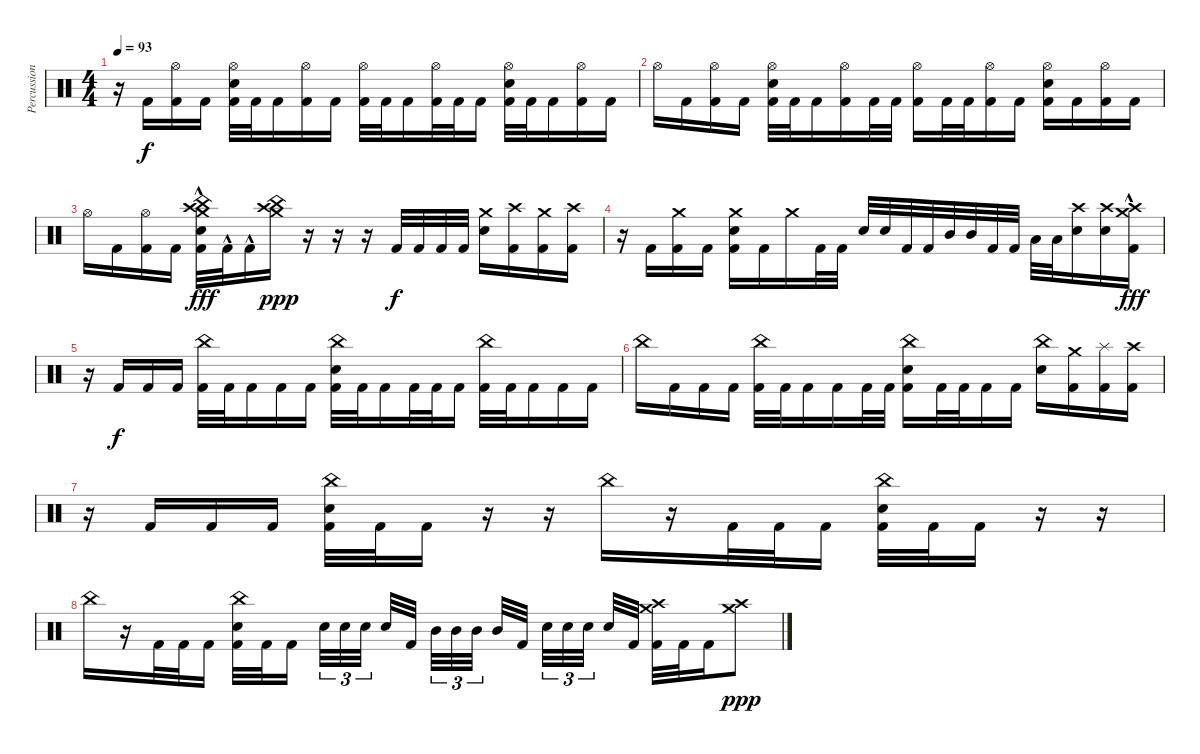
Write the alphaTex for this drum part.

\track ("Percussion" "Percussion") {instrument percussion}
\staff {score}
\articulation defaults
\ts (4 4)
\tempo 93
\clef neutral
\ks c
r.16{dy f} "Kick (hit) 2".16 ("Hi-Hat (open)" "Kick (hit) 2").16 "Kick (hit) 2".16 ("Hi-Hat (open)" "Electric Snare (hit)" "Kick (hit) 2").32 "Kick (hit) 2".32 "Kick (hit) 2".16 ("Hi-Hat (open)" "Kick (hit) 2").16 "Kick (hit) 2".16 ("Hi-Hat (open)" "Kick (hit) 2").32 "Kick (hit) 2".32 "Kick (hit) 2".16 ("Hi-Hat (open)" "Kick (hit) 2").32 "Kick (hit) 2".32 "Kick (hit) 2".16 ("Hi-Hat (open)" "Electric Snare (hit)" "Kick (hit) 2").32 "Kick (hit) 2".32 "Kick (hit) 2".16 ("Hi-Hat (open)" "Kick (hit) 2").16 "Kick (hit) 2".16 |
"Hi-Hat (open)".16 "Kick (hit) 2".16 ("Hi-Hat (open)" "Kick (hit) 2").16 "Kick (hit) 2".16 ("Hi-Hat (open)" "Electric Snare (hit)" "Kick (hit) 2").32 "Kick (hit) 2".32 "Kick (hit) 2".16 ("Hi-Hat (open)" "Kick (hit) 2").16 "Kick (hit) 2".32 "Kick (hit) 2".32 ("Hi-Hat (open)" "Kick (hit) 2").16 "Kick (hit) 2".32 "Kick (hit) 2".32 ("Hi-Hat (open)" "Kick (hit) 2").16 "Kick (hit) 2".16 ("Hi-Hat (open)" "Electric Snare (hit)" "Kick (hit) 2").16 "Kick (hit) 2".16 ("Hi-Hat (open)" "Kick (hit) 2").16 "Kick (hit) 2".16 |
"Hi-Hat (open)".16 "Kick (hit) 2".16 ("Hi-Hat (open)" "Kick (hit) 2").16 "Kick (hit) 2".16 ("China (hit)"{hac} "Crash medium (hit)"{hac} "Crash high (hit)"{hac} "Electric Snare (hit)"{hac} "Kick (hit) 2"{hac}).32{dy fff} "Kick (hit) 2"{hac}.32 "Kick (hit) 2"{hac}.16 ("China (hit)" "Crash medium (hit)" "Crash high (hit)").16{dy ppp} r.16 r.16 r.16 "Kick (hit) 2".32{dy f} "Kick (hit) 2".32 "Kick (hit) 2".32 "Kick (hit) 2".32 ("Crash medium (hit)" "Electric Snare (hit)").16 ("Crash high (hit)" "Kick (hit) 2").16 ("Crash medium (hit)" "Kick (hit) 2").16 ("Crash high (hit)" "Kick (hit) 2").16 |
r.16 "Kick (hit) 2".16 ("Crash medium (hit)" "Kick (hit) 2").16 "Kick (hit) 2".16 ("Crash medium (hit)" "Electric Snare (hit)" "Kick (hit) 2").16 "Kick (hit) 2".16 "Crash medium (hit)".16 "Kick (hit) 2".32 "Kick (hit) 2".32 "Electric Snare (hit)".32 "Electric Snare (hit)".32 "Kick (hit) 2".32 "Kick (hit) 2".32 "Mid Tom (hit)".32 "Mid Tom (hit)".32 "Kick (hit) 2".32 "Kick (hit) 2".32 "Low Tom (hit)".32 "Low Tom (hit)".32 ("Crash high (hit)" "Electric Snare (hit)").16 ("Crash high (hit)" "Electric Snare (hit)").16 ("Crash medium (hit)"{hac} "Crash high (hit)"{hac} "Kick (hit) 2"{hac}).16{dy fff} |
r.16 "Kick (hit) 2".16{dy f} "Kick (hit) 2".16 "Kick (hit) 2".16 ("China (hit)" "Kick (hit) 2").32 "Kick (hit) 2".32 "Kick (hit) 2".16 "Kick (hit) 2".16 "Kick (hit) 2".16 ("China (hit)" "Electric Snare (hit)" "Kick (hit) 2").32 "Kick (hit) 2".32 "Kick (hit) 2".16 "Kick (hit) 2".32 "Kick (hit) 2".32 "Kick (hit) 2".16 ("China (hit)" "Kick (hit) 2").32 "Kick (hit) 2".32 "Kick (hit) 2".16 "Kick (hit) 2".16 "Kick (hit) 2".16 |
"China (hit)".16 "Kick (hit) 2".16 "Kick (hit) 2".16 "Kick (hit) 2".16 ("China (hit)" "Kick (hit) 2").32 "Kick (hit) 2".32 "Kick (hit) 2".16 "Kick (hit) 2".16 "Kick (hit) 2".32 "Kick (hit) 2".32 ("China (hit)" "Electric Snare (hit)" "Kick (hit) 2").16 "Kick (hit) 2".32 "Kick (hit) 2".32 "Kick (hit) 2".16 "Kick (hit) 2".16 ("China (hit)" "Electric Snare (hit)").16 ("Crash medium (hit)" "Kick (hit) 2").16 ("Splash (hit)" "Kick (hit) 2").16 ("Crash high (hit)" "Kick (hit) 2").16 |
r.16 "Kick (hit) 2".16 "Kick (hit) 2".16 "Kick (hit) 2".16 ("China (hit)" "Electric Snare (hit)" "Kick (hit) 2").32 "Kick (hit) 2".32 "Kick (hit) 2".16 r.16 r.16 "China (hit)".16 r.16 "Kick (hit) 2".32 "Kick (hit) 2".32 "Kick (hit) 2".16 ("China (hit)" "Electric Snare (hit)" "Kick (hit) 2").32 "Kick (hit) 2".32 "Kick (hit) 2".16 r.16 r.16 |
"China (hit)".16 r.16 "Kick (hit) 2".32 "Kick (hit) 2".32 "Kick (hit) 2".16 ("China (hit)" "Electric Snare (hit)" "Kick (hit) 2").32 "Kick (hit) 2".32 "Kick (hit) 2".16{beam splitsecondary} "Electric Snare (hit)".32{tu (3 2)} "Electric Snare (hit)".32{tu (3 2)} "Electric Snare (hit)".32{tu (3 2) beam splitsecondary} "Electric Snare (hit)".32 "Kick (hit) 2".32 "Mid Tom (hit)".32{tu (3 2)} "Mid Tom (hit)".32{tu (3 2)} "Mid Tom (hit)".32{tu (3 2) beam splitsecondary} "Mid Tom (hit)".32 "Kick (hit) 2".32{beam splitsecondary} "Electric Snare (hit)".32{tu (3 2)} "Electric Snare (hit)".32{tu (3 2)} "Electric Snare (hit)".32{tu (3 2) beam splitsecondary} "Electric Snare (hit)".32 "Kick (hit) 2".32 ("Crash medium (hit)" "Crash high (hit)" "Kick (hit) 2").32 "Kick (hit) 2".32 "Kick (hit) 2".16 ("Crash medium (hit)" "Crash high (hit)").8{dy ppp}
